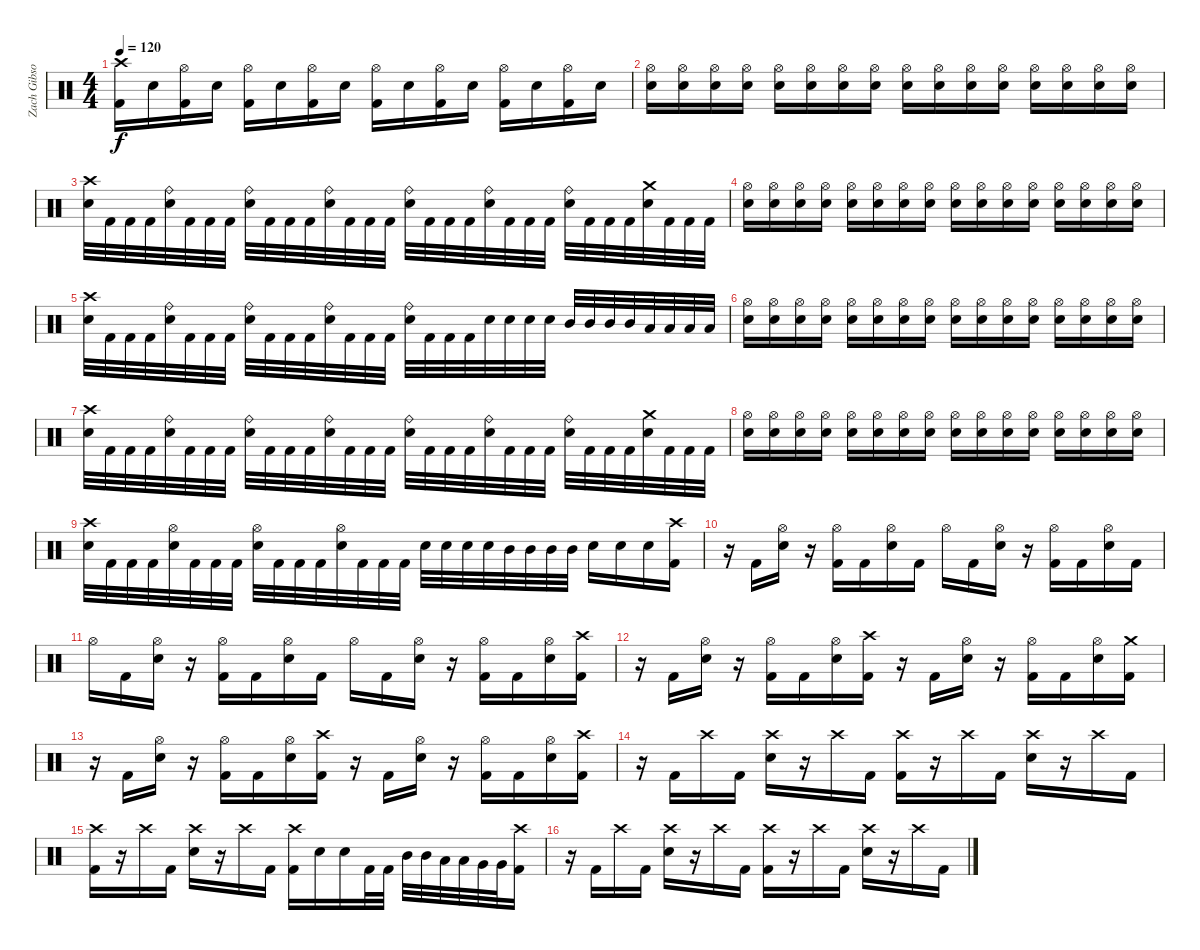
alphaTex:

\track ("Zach Gibson" "Zach Gibso") {instrument percussion}
\staff {score}
\articulation defaults
\ts (4 4)
\tempo 120
\clef neutral
\ks c
("Crash high (hit)" "Kick (hit) 2").16{dy f} "Electric Snare (hit)".16 ("Hi-Hat (open)" "Kick (hit) 2").16 "Electric Snare (hit)".16 ("Hi-Hat (open)" "Kick (hit) 2").16 "Electric Snare (hit)".16 ("Hi-Hat (open)" "Kick (hit) 2").16 "Electric Snare (hit)".16 ("Hi-Hat (open)" "Kick (hit) 2").16 "Electric Snare (hit)".16 ("Hi-Hat (open)" "Kick (hit) 2").16 "Electric Snare (hit)".16 ("Hi-Hat (open)" "Kick (hit) 2").16 "Electric Snare (hit)".16 ("Hi-Hat (open)" "Kick (hit) 2").16 "Electric Snare (hit)".16 |
("Hi-Hat (open)" "Electric Snare (hit)").16 ("Hi-Hat (open)" "Electric Snare (hit)").16 ("Hi-Hat (open)" "Electric Snare (hit)").16 ("Hi-Hat (open)" "Electric Snare (hit)").16 ("Hi-Hat (open)" "Electric Snare (hit)").16 ("Hi-Hat (open)" "Electric Snare (hit)").16 ("Hi-Hat (open)" "Electric Snare (hit)").16 ("Hi-Hat (open)" "Electric Snare (hit)").16 ("Hi-Hat (open)" "Electric Snare (hit)").16 ("Hi-Hat (open)" "Electric Snare (hit)").16 ("Hi-Hat (open)" "Electric Snare (hit)").16 ("Hi-Hat (open)" "Electric Snare (hit)").16 ("Hi-Hat (open)" "Electric Snare (hit)").16 ("Hi-Hat (open)" "Electric Snare (hit)").16 ("Hi-Hat (open)" "Electric Snare (hit)").16 ("Hi-Hat (open)" "Electric Snare (hit)").16 |
("Crash high (hit)" "Electric Snare (hit)").32 "Kick (hit) 2".32 "Kick (hit) 2".32 "Kick (hit) 2".32 ("Ride (bell)" "Electric Snare (hit)").32 "Kick (hit) 2".32 "Kick (hit) 2".32 "Kick (hit) 2".32 ("Ride (bell)" "Electric Snare (hit)").32 "Kick (hit) 2".32 "Kick (hit) 2".32 "Kick (hit) 2".32 ("Ride (bell)" "Electric Snare (hit)").32 "Kick (hit) 2".32 "Kick (hit) 2".32 "Kick (hit) 2".32 ("Ride (bell)" "Electric Snare (hit)").32 "Kick (hit) 2".32 "Kick (hit) 2".32 "Kick (hit) 2".32 ("Ride (bell)" "Electric Snare (hit)").32 "Kick (hit) 2".32 "Kick (hit) 2".32 "Kick (hit) 2".32 ("Ride (bell)" "Electric Snare (hit)").32 "Kick (hit) 2".32 "Kick (hit) 2".32 "Kick (hit) 2".32 ("Crash medium (hit)" "Electric Snare (hit)").32 "Kick (hit) 2".32 "Kick (hit) 2".32 "Kick (hit) 2".32 |
("Hi-Hat (open)" "Electric Snare (hit)").16 ("Hi-Hat (open)" "Electric Snare (hit)").16 ("Hi-Hat (open)" "Electric Snare (hit)").16 ("Hi-Hat (open)" "Electric Snare (hit)").16 ("Hi-Hat (open)" "Electric Snare (hit)").16 ("Hi-Hat (open)" "Electric Snare (hit)").16 ("Hi-Hat (open)" "Electric Snare (hit)").16 ("Hi-Hat (open)" "Electric Snare (hit)").16 ("Hi-Hat (open)" "Electric Snare (hit)").16 ("Hi-Hat (open)" "Electric Snare (hit)").16 ("Hi-Hat (open)" "Electric Snare (hit)").16 ("Hi-Hat (open)" "Electric Snare (hit)").16 ("Hi-Hat (open)" "Electric Snare (hit)").16 ("Hi-Hat (open)" "Electric Snare (hit)").16 ("Hi-Hat (open)" "Electric Snare (hit)").16 ("Hi-Hat (open)" "Electric Snare (hit)").16 |
("Crash high (hit)" "Electric Snare (hit)").32 "Kick (hit) 2".32 "Kick (hit) 2".32 "Kick (hit) 2".32 ("Ride (bell)" "Electric Snare (hit)").32 "Kick (hit) 2".32 "Kick (hit) 2".32 "Kick (hit) 2".32 ("Ride (bell)" "Electric Snare (hit)").32 "Kick (hit) 2".32 "Kick (hit) 2".32 "Kick (hit) 2".32 ("Ride (bell)" "Electric Snare (hit)").32 "Kick (hit) 2".32 "Kick (hit) 2".32 "Kick (hit) 2".32 ("Ride (bell)" "Electric Snare (hit)").32 "Kick (hit) 2".32 "Kick (hit) 2".32 "Kick (hit) 2".32 "Electric Snare (hit)".32 "Electric Snare (hit)".32 "Electric Snare (hit)".32 "Electric Snare (hit)".32 "Mid Tom (hit)".32 "Mid Tom (hit)".32 "Mid Tom (hit)".32 "Mid Tom (hit)".32 "Low Tom (hit)".32 "Low Tom (hit)".32 "Low Tom (hit)".32 "Low Tom (hit)".32 |
("Hi-Hat (open)" "Electric Snare (hit)").16 ("Hi-Hat (open)" "Electric Snare (hit)").16 ("Hi-Hat (open)" "Electric Snare (hit)").16 ("Hi-Hat (open)" "Electric Snare (hit)").16 ("Hi-Hat (open)" "Electric Snare (hit)").16 ("Hi-Hat (open)" "Electric Snare (hit)").16 ("Hi-Hat (open)" "Electric Snare (hit)").16 ("Hi-Hat (open)" "Electric Snare (hit)").16 ("Hi-Hat (open)" "Electric Snare (hit)").16 ("Hi-Hat (open)" "Electric Snare (hit)").16 ("Hi-Hat (open)" "Electric Snare (hit)").16 ("Hi-Hat (open)" "Electric Snare (hit)").16 ("Hi-Hat (open)" "Electric Snare (hit)").16 ("Hi-Hat (open)" "Electric Snare (hit)").16 ("Hi-Hat (open)" "Electric Snare (hit)").16 ("Hi-Hat (open)" "Electric Snare (hit)").16 |
("Crash high (hit)" "Electric Snare (hit)").32 "Kick (hit) 2".32 "Kick (hit) 2".32 "Kick (hit) 2".32 ("Ride (bell)" "Electric Snare (hit)").32 "Kick (hit) 2".32 "Kick (hit) 2".32 "Kick (hit) 2".32 ("Ride (bell)" "Electric Snare (hit)").32 "Kick (hit) 2".32 "Kick (hit) 2".32 "Kick (hit) 2".32 ("Ride (bell)" "Electric Snare (hit)").32 "Kick (hit) 2".32 "Kick (hit) 2".32 "Kick (hit) 2".32 ("Ride (bell)" "Electric Snare (hit)").32 "Kick (hit) 2".32 "Kick (hit) 2".32 "Kick (hit) 2".32 ("Ride (bell)" "Electric Snare (hit)").32 "Kick (hit) 2".32 "Kick (hit) 2".32 "Kick (hit) 2".32 ("Ride (bell)" "Electric Snare (hit)").32 "Kick (hit) 2".32 "Kick (hit) 2".32 "Kick (hit) 2".32 ("Crash medium (hit)" "Electric Snare (hit)").32 "Kick (hit) 2".32 "Kick (hit) 2".32 "Kick (hit) 2".32 |
("Hi-Hat (open)" "Electric Snare (hit)").16 ("Hi-Hat (open)" "Electric Snare (hit)").16 ("Hi-Hat (open)" "Electric Snare (hit)").16 ("Hi-Hat (open)" "Electric Snare (hit)").16 ("Hi-Hat (open)" "Electric Snare (hit)").16 ("Hi-Hat (open)" "Electric Snare (hit)").16 ("Hi-Hat (open)" "Electric Snare (hit)").16 ("Hi-Hat (open)" "Electric Snare (hit)").16 ("Hi-Hat (open)" "Electric Snare (hit)").16 ("Hi-Hat (open)" "Electric Snare (hit)").16 ("Hi-Hat (open)" "Electric Snare (hit)").16 ("Hi-Hat (open)" "Electric Snare (hit)").16 ("Hi-Hat (open)" "Electric Snare (hit)").16 ("Hi-Hat (open)" "Electric Snare (hit)").16 ("Hi-Hat (open)" "Electric Snare (hit)").16 ("Hi-Hat (open)" "Electric Snare (hit)").16 |
("Crash high (hit)" "Electric Snare (hit)").32 "Kick (hit) 2".32 "Kick (hit) 2".32 "Kick (hit) 2".32 ("Hi-Hat (open)" "Electric Snare (hit)").32 "Kick (hit) 2".32 "Kick (hit) 2".32 "Kick (hit) 2".32 ("Hi-Hat (open)" "Electric Snare (hit)").32 "Kick (hit) 2".32 "Kick (hit) 2".32 "Kick (hit) 2".32 ("Hi-Hat (open)" "Electric Snare (hit)").32 "Kick (hit) 2".32 "Kick (hit) 2".32 "Kick (hit) 2".32 "Electric Snare (hit)".32 "Electric Snare (hit)".32 "Electric Snare (hit)".32 "Electric Snare (hit)".32 "Mid Tom (hit)".32 "Mid Tom (hit)".32 "Mid Tom (hit)".32 "Mid Tom (hit)".32 "Electric Snare (hit)".16 "Electric Snare (hit)".16 "Electric Snare (hit)".16 ("Crash high (hit)" "Kick (hit) 2").16 |
r.16 "Kick (hit) 2".16 ("Hi-Hat (open)" "Electric Snare (hit)").16 r.16 ("Hi-Hat (open)" "Kick (hit) 2").16 "Kick (hit) 2".16 ("Hi-Hat (open)" "Electric Snare (hit)").16 "Kick (hit) 2".16 "Hi-Hat (open)".16 "Kick (hit) 2".16 ("Hi-Hat (open)" "Electric Snare (hit)").16 r.16 ("Hi-Hat (open)" "Kick (hit) 2").16 "Kick (hit) 2".16 ("Hi-Hat (open)" "Electric Snare (hit)").16 "Kick (hit) 2".16 |
"Hi-Hat (open)".16 "Kick (hit) 2".16 ("Hi-Hat (open)" "Electric Snare (hit)").16 r.16 ("Hi-Hat (open)" "Kick (hit) 2").16 "Kick (hit) 2".16 ("Hi-Hat (open)" "Electric Snare (hit)").16 "Kick (hit) 2".16 "Hi-Hat (open)".16 "Kick (hit) 2".16 ("Hi-Hat (open)" "Electric Snare (hit)").16 r.16 ("Hi-Hat (open)" "Kick (hit) 2").16 "Kick (hit) 2".16 ("Hi-Hat (open)" "Electric Snare (hit)").16 ("Crash high (hit)" "Kick (hit) 2").16 |
r.16 "Kick (hit) 2".16 ("Hi-Hat (open)" "Electric Snare (hit)").16 r.16 ("Hi-Hat (open)" "Kick (hit) 2").16 "Kick (hit) 2".16 ("Hi-Hat (open)" "Electric Snare (hit)").16 ("Crash high (hit)" "Kick (hit) 2").16 r.16 "Kick (hit) 2".16 ("Hi-Hat (open)" "Electric Snare (hit)").16 r.16 ("Hi-Hat (open)" "Kick (hit) 2").16 "Kick (hit) 2".16 ("Hi-Hat (open)" "Electric Snare (hit)").16 ("Crash medium (hit)" "Kick (hit) 2").16 |
r.16 "Kick (hit) 2".16 ("Hi-Hat (open)" "Electric Snare (hit)").16 r.16 ("Hi-Hat (open)" "Kick (hit) 2").16 "Kick (hit) 2".16 ("Hi-Hat (open)" "Electric Snare (hit)").16 ("Crash high (hit)" "Kick (hit) 2").16 r.16 "Kick (hit) 2".16 ("Hi-Hat (open)" "Electric Snare (hit)").16 r.16 ("Hi-Hat (open)" "Kick (hit) 2").16 "Kick (hit) 2".16 ("Hi-Hat (open)" "Electric Snare (hit)").16 ("Crash high (hit)" "Kick (hit) 2").16 |
r.16 "Kick (hit) 2".16 "Crash high (hit)".16 "Kick (hit) 2".16 ("Crash high (hit)" "Electric Snare (hit)").16 r.16 "Crash high (hit)".16 "Kick (hit) 2".16 ("Crash high (hit)" "Kick (hit) 2").16 r.16 "Crash high (hit)".16 "Kick (hit) 2".16 ("Crash high (hit)" "Electric Snare (hit)").16 r.16 "Crash high (hit)".16 "Kick (hit) 2".16 |
("Crash high (hit)" "Kick (hit) 2").16 r.16 "Crash high (hit)".16 "Kick (hit) 2".16 ("Crash high (hit)" "Electric Snare (hit)").16 r.16 "Crash high (hit)".16 "Kick (hit) 2".16 ("Crash high (hit)" "Kick (hit) 2").16 "Electric Snare (hit)".16 "Electric Snare (hit)".16 "Kick (hit) 2".32 "Kick (hit) 2".32 "Mid Tom (hit)".32 "Mid Tom (hit)".32 "Low Tom (hit)".32 "Low Tom (hit)".32 "Very Low Tom (hit)".32 "Very Low Tom (hit)".32 ("Crash high (hit)" "Kick (hit) 2").16 |
r.16 "Kick (hit) 2".16 "Crash high (hit)".16 "Kick (hit) 2".16 ("Crash high (hit)" "Electric Snare (hit)").16 r.16 "Crash high (hit)".16 "Kick (hit) 2".16 ("Crash high (hit)" "Kick (hit) 2").16 r.16 "Crash high (hit)".16 "Kick (hit) 2".16 ("Crash high (hit)" "Electric Snare (hit)").16 r.16 "Crash high (hit)".16 "Kick (hit) 2".16
